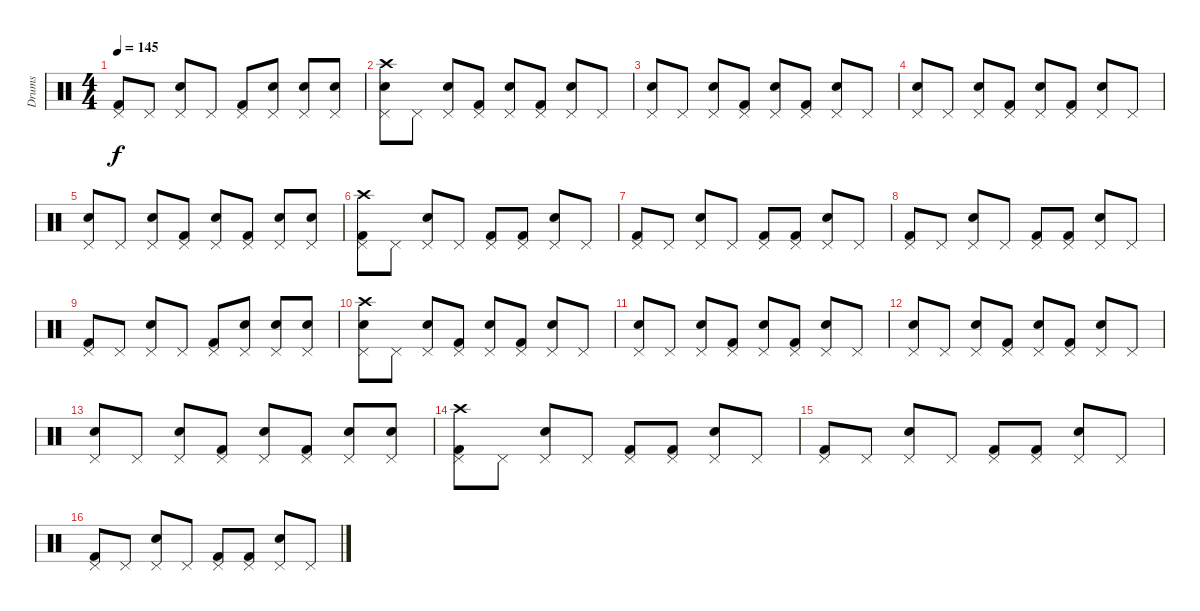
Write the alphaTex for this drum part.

\track ("Drums" "Drums") {instrument percussion}
\staff {score}
\articulation defaults
\ts (4 4)
\tempo 145
\clef neutral
\ks c
("Kick (hit) 2" "Pedal Hi-Hat (hit)").8{dy f} "Pedal Hi-Hat (hit)".8 ("Snare (hit) 2" "Pedal Hi-Hat (hit)").8 "Pedal Hi-Hat (hit)".8 ("Kick (hit) 2" "Pedal Hi-Hat (hit)").8 ("Snare (hit) 2" "Pedal Hi-Hat (hit)").8 ("Snare (hit) 2" "Pedal Hi-Hat (hit)").8 ("Snare (hit) 2" "Pedal Hi-Hat (hit)").8 |
("Crash high (hit)" "Snare (hit) 2" "Pedal Hi-Hat (hit)").8 "Pedal Hi-Hat (hit)".8 ("Snare (hit) 2" "Pedal Hi-Hat (hit)").8 ("Kick (hit) 2" "Pedal Hi-Hat (hit)").8 ("Snare (hit) 2" "Pedal Hi-Hat (hit)").8 ("Kick (hit) 2" "Pedal Hi-Hat (hit)").8 ("Snare (hit) 2" "Pedal Hi-Hat (hit)").8 "Pedal Hi-Hat (hit)".8 |
("Snare (hit) 2" "Pedal Hi-Hat (hit)").8 "Pedal Hi-Hat (hit)".8 ("Snare (hit) 2" "Pedal Hi-Hat (hit)").8 ("Kick (hit) 2" "Pedal Hi-Hat (hit)").8 ("Snare (hit) 2" "Pedal Hi-Hat (hit)").8 ("Kick (hit) 2" "Pedal Hi-Hat (hit)").8 ("Snare (hit) 2" "Pedal Hi-Hat (hit)").8 "Pedal Hi-Hat (hit)".8 |
("Snare (hit) 2" "Pedal Hi-Hat (hit)").8 "Pedal Hi-Hat (hit)".8 ("Snare (hit) 2" "Pedal Hi-Hat (hit)").8 ("Kick (hit) 2" "Pedal Hi-Hat (hit)").8 ("Snare (hit) 2" "Pedal Hi-Hat (hit)").8 ("Kick (hit) 2" "Pedal Hi-Hat (hit)").8 ("Snare (hit) 2" "Pedal Hi-Hat (hit)").8 "Pedal Hi-Hat (hit)".8 |
("Snare (hit) 2" "Pedal Hi-Hat (hit)").8 "Pedal Hi-Hat (hit)".8 ("Snare (hit) 2" "Pedal Hi-Hat (hit)").8 ("Kick (hit) 2" "Pedal Hi-Hat (hit)").8 ("Snare (hit) 2" "Pedal Hi-Hat (hit)").8 ("Kick (hit) 2" "Pedal Hi-Hat (hit)").8 ("Snare (hit) 2" "Pedal Hi-Hat (hit)").8 ("Snare (hit) 2" "Pedal Hi-Hat (hit)").8 |
("Kick (hit) 2" "Crash high (hit)" "Pedal Hi-Hat (hit)").8 "Pedal Hi-Hat (hit)".8 ("Snare (hit) 2" "Pedal Hi-Hat (hit)").8 "Pedal Hi-Hat (hit)".8 ("Kick (hit) 2" "Pedal Hi-Hat (hit)").8 ("Kick (hit) 2" "Pedal Hi-Hat (hit)").8 ("Snare (hit) 2" "Pedal Hi-Hat (hit)").8 "Pedal Hi-Hat (hit)".8 |
("Kick (hit) 2" "Pedal Hi-Hat (hit)").8 "Pedal Hi-Hat (hit)".8 ("Snare (hit) 2" "Pedal Hi-Hat (hit)").8 "Pedal Hi-Hat (hit)".8 ("Kick (hit) 2" "Pedal Hi-Hat (hit)").8 ("Kick (hit) 2" "Pedal Hi-Hat (hit)").8 ("Snare (hit) 2" "Pedal Hi-Hat (hit)").8 "Pedal Hi-Hat (hit)".8 |
("Kick (hit) 2" "Pedal Hi-Hat (hit)").8 "Pedal Hi-Hat (hit)".8 ("Snare (hit) 2" "Pedal Hi-Hat (hit)").8 "Pedal Hi-Hat (hit)".8 ("Kick (hit) 2" "Pedal Hi-Hat (hit)").8 ("Kick (hit) 2" "Pedal Hi-Hat (hit)").8 ("Snare (hit) 2" "Pedal Hi-Hat (hit)").8 "Pedal Hi-Hat (hit)".8 |
("Kick (hit) 2" "Pedal Hi-Hat (hit)").8 "Pedal Hi-Hat (hit)".8 ("Snare (hit) 2" "Pedal Hi-Hat (hit)").8 "Pedal Hi-Hat (hit)".8 ("Kick (hit) 2" "Pedal Hi-Hat (hit)").8 ("Snare (hit) 2" "Pedal Hi-Hat (hit)").8 ("Snare (hit) 2" "Pedal Hi-Hat (hit)").8 ("Snare (hit) 2" "Pedal Hi-Hat (hit)").8 |
("Crash high (hit)" "Snare (hit) 2" "Pedal Hi-Hat (hit)").8 "Pedal Hi-Hat (hit)".8 ("Snare (hit) 2" "Pedal Hi-Hat (hit)").8 ("Kick (hit) 2" "Pedal Hi-Hat (hit)").8 ("Snare (hit) 2" "Pedal Hi-Hat (hit)").8 ("Kick (hit) 2" "Pedal Hi-Hat (hit)").8 ("Snare (hit) 2" "Pedal Hi-Hat (hit)").8 "Pedal Hi-Hat (hit)".8 |
("Snare (hit) 2" "Pedal Hi-Hat (hit)").8 "Pedal Hi-Hat (hit)".8 ("Snare (hit) 2" "Pedal Hi-Hat (hit)").8 ("Kick (hit) 2" "Pedal Hi-Hat (hit)").8 ("Snare (hit) 2" "Pedal Hi-Hat (hit)").8 ("Kick (hit) 2" "Pedal Hi-Hat (hit)").8 ("Snare (hit) 2" "Pedal Hi-Hat (hit)").8 "Pedal Hi-Hat (hit)".8 |
("Snare (hit) 2" "Pedal Hi-Hat (hit)").8 "Pedal Hi-Hat (hit)".8 ("Snare (hit) 2" "Pedal Hi-Hat (hit)").8 ("Kick (hit) 2" "Pedal Hi-Hat (hit)").8 ("Snare (hit) 2" "Pedal Hi-Hat (hit)").8 ("Kick (hit) 2" "Pedal Hi-Hat (hit)").8 ("Snare (hit) 2" "Pedal Hi-Hat (hit)").8 "Pedal Hi-Hat (hit)".8 |
("Snare (hit) 2" "Pedal Hi-Hat (hit)").8 "Pedal Hi-Hat (hit)".8 ("Snare (hit) 2" "Pedal Hi-Hat (hit)").8 ("Kick (hit) 2" "Pedal Hi-Hat (hit)").8 ("Snare (hit) 2" "Pedal Hi-Hat (hit)").8 ("Kick (hit) 2" "Pedal Hi-Hat (hit)").8 ("Snare (hit) 2" "Pedal Hi-Hat (hit)").8 ("Snare (hit) 2" "Pedal Hi-Hat (hit)").8 |
("Kick (hit) 2" "Crash high (hit)" "Pedal Hi-Hat (hit)").8 "Pedal Hi-Hat (hit)".8 ("Snare (hit) 2" "Pedal Hi-Hat (hit)").8 "Pedal Hi-Hat (hit)".8 ("Kick (hit) 2" "Pedal Hi-Hat (hit)").8 ("Kick (hit) 2" "Pedal Hi-Hat (hit)").8 ("Snare (hit) 2" "Pedal Hi-Hat (hit)").8 "Pedal Hi-Hat (hit)".8 |
("Kick (hit) 2" "Pedal Hi-Hat (hit)").8 "Pedal Hi-Hat (hit)".8 ("Snare (hit) 2" "Pedal Hi-Hat (hit)").8 "Pedal Hi-Hat (hit)".8 ("Kick (hit) 2" "Pedal Hi-Hat (hit)").8 ("Kick (hit) 2" "Pedal Hi-Hat (hit)").8 ("Snare (hit) 2" "Pedal Hi-Hat (hit)").8 "Pedal Hi-Hat (hit)".8 |
("Kick (hit) 2" "Pedal Hi-Hat (hit)").8 "Pedal Hi-Hat (hit)".8 ("Snare (hit) 2" "Pedal Hi-Hat (hit)").8 "Pedal Hi-Hat (hit)".8 ("Kick (hit) 2" "Pedal Hi-Hat (hit)").8 ("Kick (hit) 2" "Pedal Hi-Hat (hit)").8 ("Snare (hit) 2" "Pedal Hi-Hat (hit)").8 "Pedal Hi-Hat (hit)".8
